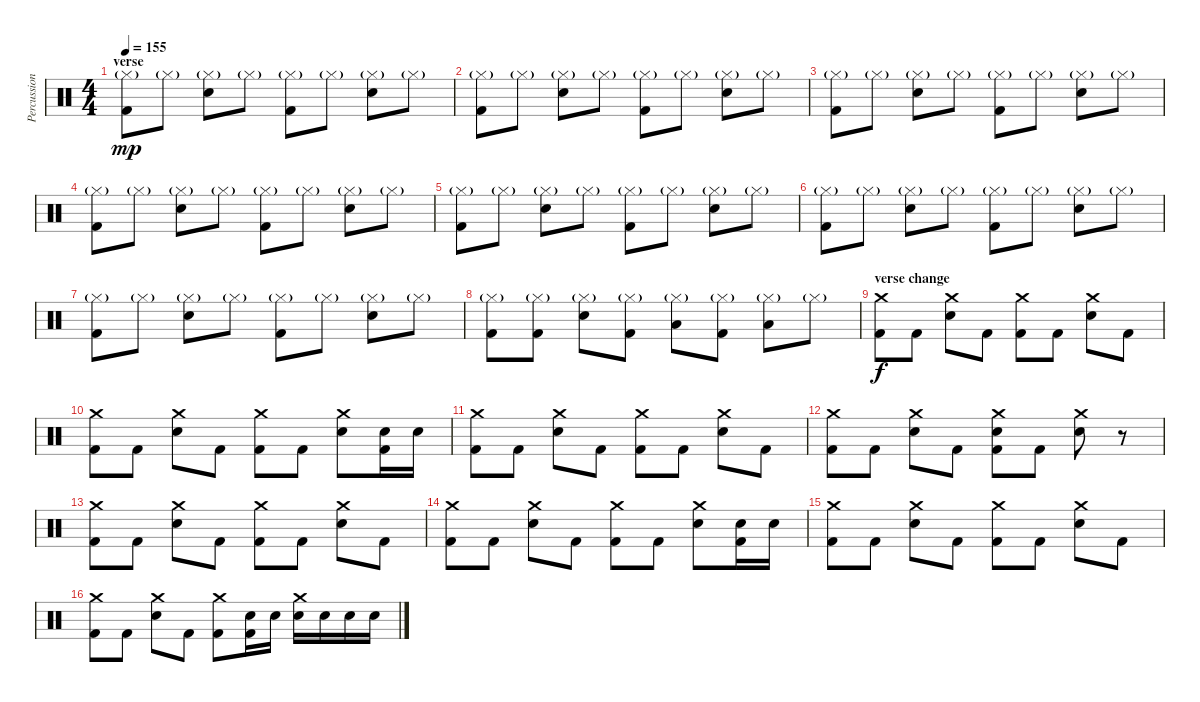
\track ("Percussion" "Percussion") {instrument percussion}
\staff {score}
\articulation defaults
\ts (4 4)
\section ("" "verse")
\tempo 155
\clef neutral
\ks c
("Hi-Hat (closed)"{g} "Kick (hit) 2").8{dy mp} "Hi-Hat (closed)"{g}.8 ("Hi-Hat (closed)"{g} "Snare (hit) 2").8 "Hi-Hat (closed)"{g}.8 ("Hi-Hat (closed)"{g} "Kick (hit) 2").8 "Hi-Hat (closed)"{g}.8 ("Hi-Hat (closed)"{g} "Snare (hit) 2").8 "Hi-Hat (closed)"{g}.8 |
("Hi-Hat (closed)"{g} "Kick (hit) 2").8 "Hi-Hat (closed)"{g}.8 ("Hi-Hat (closed)"{g} "Snare (hit) 2").8 "Hi-Hat (closed)"{g}.8 ("Hi-Hat (closed)"{g} "Kick (hit) 2").8 "Hi-Hat (closed)"{g}.8 ("Hi-Hat (closed)"{g} "Snare (hit) 2").8 "Hi-Hat (closed)"{g}.8 |
("Hi-Hat (closed)"{g} "Kick (hit) 2").8 "Hi-Hat (closed)"{g}.8 ("Hi-Hat (closed)"{g} "Snare (hit) 2").8 "Hi-Hat (closed)"{g}.8 ("Hi-Hat (closed)"{g} "Kick (hit) 2").8 "Hi-Hat (closed)"{g}.8 ("Hi-Hat (closed)"{g} "Snare (hit) 2").8 "Hi-Hat (closed)"{g}.8 |
("Hi-Hat (closed)"{g} "Kick (hit) 2").8 "Hi-Hat (closed)"{g}.8 ("Hi-Hat (closed)"{g} "Snare (hit) 2").8 "Hi-Hat (closed)"{g}.8 ("Hi-Hat (closed)"{g} "Kick (hit) 2").8 "Hi-Hat (closed)"{g}.8 ("Hi-Hat (closed)"{g} "Snare (hit) 2").8 "Hi-Hat (closed)"{g}.8 |
("Hi-Hat (closed)"{g} "Kick (hit) 2").8 "Hi-Hat (closed)"{g}.8 ("Hi-Hat (closed)"{g} "Snare (hit) 2").8 "Hi-Hat (closed)"{g}.8 ("Hi-Hat (closed)"{g} "Kick (hit) 2").8 "Hi-Hat (closed)"{g}.8 ("Hi-Hat (closed)"{g} "Snare (hit) 2").8 "Hi-Hat (closed)"{g}.8 |
("Hi-Hat (closed)"{g} "Kick (hit) 2").8 "Hi-Hat (closed)"{g}.8 ("Hi-Hat (closed)"{g} "Snare (hit) 2").8 "Hi-Hat (closed)"{g}.8 ("Hi-Hat (closed)"{g} "Kick (hit) 2").8 "Hi-Hat (closed)"{g}.8 ("Hi-Hat (closed)"{g} "Snare (hit) 2").8 "Hi-Hat (closed)"{g}.8 |
("Hi-Hat (closed)"{g} "Kick (hit) 2").8 "Hi-Hat (closed)"{g}.8 ("Hi-Hat (closed)"{g} "Snare (hit) 2").8 "Hi-Hat (closed)"{g}.8 ("Hi-Hat (closed)"{g} "Kick (hit) 2").8 "Hi-Hat (closed)"{g}.8 ("Hi-Hat (closed)"{g} "Snare (hit) 2").8 "Hi-Hat (closed)"{g}.8 |
("Hi-Hat (closed)"{g} "Kick (hit) 2").8 ("Hi-Hat (closed)"{g} "Kick (hit) 2").8 ("Hi-Hat (closed)"{g} "Snare (hit) 2").8 ("Hi-Hat (closed)"{g} "Kick (hit) 2").8 ("Hi-Hat (closed)"{g} "Low Tom (hit)").8 ("Hi-Hat (closed)"{g} "Kick (hit) 2").8 ("Hi-Hat (closed)"{g} "Low Floor Tom (hit)").8 "Hi-Hat (closed)"{g}.8 |
\section ("" "verse change")
("Crash medium (hit)" "Kick (hit) 2").8{dy f} "Kick (hit) 2".8 ("Crash medium (hit)" "Snare (hit) 2").8 "Kick (hit) 2".8 ("Crash medium (hit)" "Kick (hit) 2").8 "Kick (hit) 2".8 ("Crash medium (hit)" "Snare (hit) 2").8 "Kick (hit) 2".8 |
("Crash medium (hit)" "Kick (hit) 2").8 "Kick (hit) 2".8 ("Crash medium (hit)" "Snare (hit) 2").8 "Kick (hit) 2".8 ("Crash medium (hit)" "Kick (hit) 2").8 "Kick (hit) 2".8 ("Crash medium (hit)" "Snare (hit) 2").8 ("Snare (hit) 2" "Kick (hit) 2").16 "Snare (hit) 2".16 |
("Crash medium (hit)" "Kick (hit) 2").8 "Kick (hit) 2".8 ("Crash medium (hit)" "Snare (hit) 2").8 "Kick (hit) 2".8 ("Crash medium (hit)" "Kick (hit) 2").8 "Kick (hit) 2".8 ("Crash medium (hit)" "Snare (hit) 2").8 "Kick (hit) 2".8 |
("Crash medium (hit)" "Kick (hit) 2").8 "Kick (hit) 2".8 ("Crash medium (hit)" "Snare (hit) 2").8 "Kick (hit) 2".8 ("Crash medium (hit)" "Snare (hit) 2" "Kick (hit) 2").8 "Kick (hit) 2".8 ("Crash medium (hit)" "Snare (hit) 2").8 r.8 |
("Crash medium (hit)" "Kick (hit) 2").8 "Kick (hit) 2".8 ("Crash medium (hit)" "Snare (hit) 2").8 "Kick (hit) 2".8 ("Crash medium (hit)" "Kick (hit) 2").8 "Kick (hit) 2".8 ("Crash medium (hit)" "Snare (hit) 2").8 "Kick (hit) 2".8 |
("Crash medium (hit)" "Kick (hit) 2").8 "Kick (hit) 2".8 ("Crash medium (hit)" "Snare (hit) 2").8 "Kick (hit) 2".8 ("Crash medium (hit)" "Kick (hit) 2").8 "Kick (hit) 2".8 ("Crash medium (hit)" "Snare (hit) 2").8 ("Snare (hit) 2" "Kick (hit) 2").16 "Snare (hit) 2".16 |
("Crash medium (hit)" "Kick (hit) 2").8 "Kick (hit) 2".8 ("Crash medium (hit)" "Snare (hit) 2").8 "Kick (hit) 2".8 ("Crash medium (hit)" "Kick (hit) 2").8 "Kick (hit) 2".8 ("Crash medium (hit)" "Snare (hit) 2").8 "Kick (hit) 2".8 |
("Crash medium (hit)" "Kick (hit) 2").8 "Kick (hit) 2".8 ("Crash medium (hit)" "Snare (hit) 2").8 "Kick (hit) 2".8 ("Crash medium (hit)" "Kick (hit) 2").8 ("Snare (hit) 2" "Kick (hit) 2").16 "Snare (hit) 2".16 ("Crash medium (hit)" "Snare (hit) 2").16 "Snare (hit) 2".16 "Snare (hit) 2".16 "Snare (hit) 2".16
